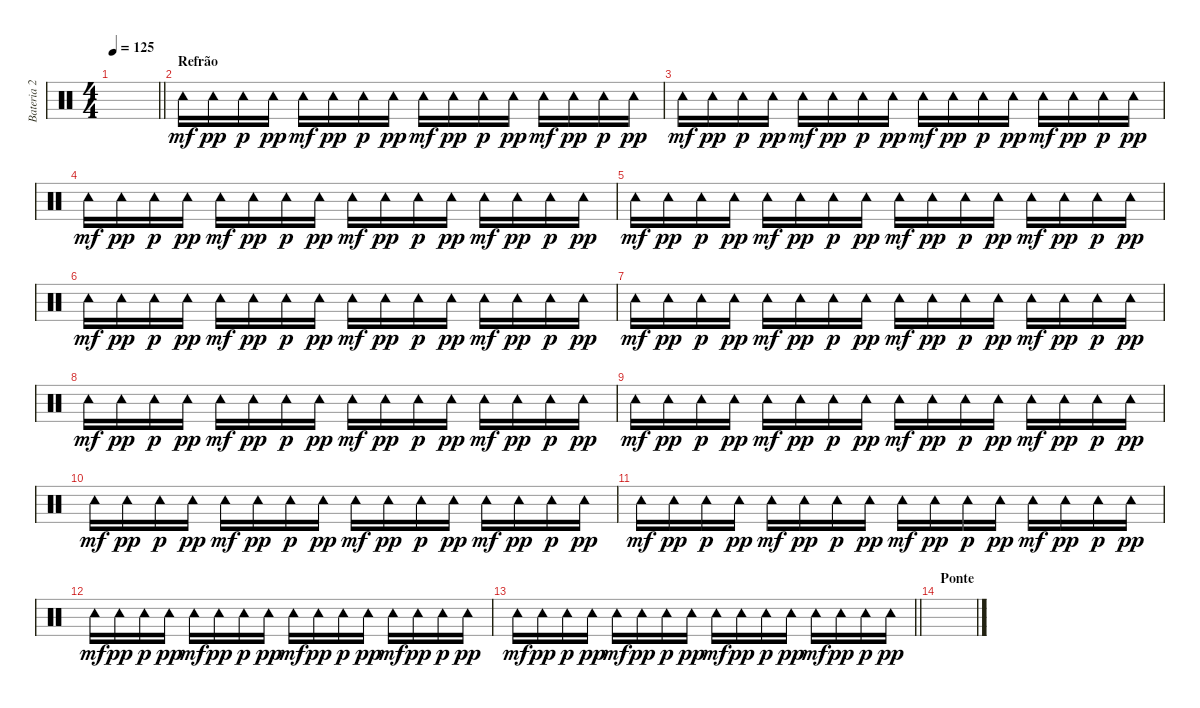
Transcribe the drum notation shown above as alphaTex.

\track ("Bateria 2" "Bateria 2") {instrument percussion}
\staff {score}
\articulation defaults
\ts (4 4)
\tempo 125
\clef neutral
\barLineRight lightlight
\ks c
|
\section ("" "Refrão")
"Tambourine (hit)".16{dy mf} "Tambourine (hit)".16{dy pp} "Tambourine (hit)".16{dy p} "Tambourine (hit)".16{dy pp} "Tambourine (hit)".16{dy mf} "Tambourine (hit)".16{dy pp} "Tambourine (hit)".16{dy p} "Tambourine (hit)".16{dy pp} "Tambourine (hit)".16{dy mf} "Tambourine (hit)".16{dy pp} "Tambourine (hit)".16{dy p} "Tambourine (hit)".16{dy pp} "Tambourine (hit)".16{dy mf} "Tambourine (hit)".16{dy pp} "Tambourine (hit)".16{dy p} "Tambourine (hit)".16{dy pp} |
"Tambourine (hit)".16{dy mf} "Tambourine (hit)".16{dy pp} "Tambourine (hit)".16{dy p} "Tambourine (hit)".16{dy pp} "Tambourine (hit)".16{dy mf} "Tambourine (hit)".16{dy pp} "Tambourine (hit)".16{dy p} "Tambourine (hit)".16{dy pp} "Tambourine (hit)".16{dy mf} "Tambourine (hit)".16{dy pp} "Tambourine (hit)".16{dy p} "Tambourine (hit)".16{dy pp} "Tambourine (hit)".16{dy mf} "Tambourine (hit)".16{dy pp} "Tambourine (hit)".16{dy p} "Tambourine (hit)".16{dy pp} |
"Tambourine (hit)".16{dy mf} "Tambourine (hit)".16{dy pp} "Tambourine (hit)".16{dy p} "Tambourine (hit)".16{dy pp} "Tambourine (hit)".16{dy mf} "Tambourine (hit)".16{dy pp} "Tambourine (hit)".16{dy p} "Tambourine (hit)".16{dy pp} "Tambourine (hit)".16{dy mf} "Tambourine (hit)".16{dy pp} "Tambourine (hit)".16{dy p} "Tambourine (hit)".16{dy pp} "Tambourine (hit)".16{dy mf} "Tambourine (hit)".16{dy pp} "Tambourine (hit)".16{dy p} "Tambourine (hit)".16{dy pp} |
"Tambourine (hit)".16{dy mf} "Tambourine (hit)".16{dy pp} "Tambourine (hit)".16{dy p} "Tambourine (hit)".16{dy pp} "Tambourine (hit)".16{dy mf} "Tambourine (hit)".16{dy pp} "Tambourine (hit)".16{dy p} "Tambourine (hit)".16{dy pp} "Tambourine (hit)".16{dy mf} "Tambourine (hit)".16{dy pp} "Tambourine (hit)".16{dy p} "Tambourine (hit)".16{dy pp} "Tambourine (hit)".16{dy mf} "Tambourine (hit)".16{dy pp} "Tambourine (hit)".16{dy p} "Tambourine (hit)".16{dy pp} |
"Tambourine (hit)".16{dy mf} "Tambourine (hit)".16{dy pp} "Tambourine (hit)".16{dy p} "Tambourine (hit)".16{dy pp} "Tambourine (hit)".16{dy mf} "Tambourine (hit)".16{dy pp} "Tambourine (hit)".16{dy p} "Tambourine (hit)".16{dy pp} "Tambourine (hit)".16{dy mf} "Tambourine (hit)".16{dy pp} "Tambourine (hit)".16{dy p} "Tambourine (hit)".16{dy pp} "Tambourine (hit)".16{dy mf} "Tambourine (hit)".16{dy pp} "Tambourine (hit)".16{dy p} "Tambourine (hit)".16{dy pp} |
"Tambourine (hit)".16{dy mf} "Tambourine (hit)".16{dy pp} "Tambourine (hit)".16{dy p} "Tambourine (hit)".16{dy pp} "Tambourine (hit)".16{dy mf} "Tambourine (hit)".16{dy pp} "Tambourine (hit)".16{dy p} "Tambourine (hit)".16{dy pp} "Tambourine (hit)".16{dy mf} "Tambourine (hit)".16{dy pp} "Tambourine (hit)".16{dy p} "Tambourine (hit)".16{dy pp} "Tambourine (hit)".16{dy mf} "Tambourine (hit)".16{dy pp} "Tambourine (hit)".16{dy p} "Tambourine (hit)".16{dy pp} |
"Tambourine (hit)".16{dy mf} "Tambourine (hit)".16{dy pp} "Tambourine (hit)".16{dy p} "Tambourine (hit)".16{dy pp} "Tambourine (hit)".16{dy mf} "Tambourine (hit)".16{dy pp} "Tambourine (hit)".16{dy p} "Tambourine (hit)".16{dy pp} "Tambourine (hit)".16{dy mf} "Tambourine (hit)".16{dy pp} "Tambourine (hit)".16{dy p} "Tambourine (hit)".16{dy pp} "Tambourine (hit)".16{dy mf} "Tambourine (hit)".16{dy pp} "Tambourine (hit)".16{dy p} "Tambourine (hit)".16{dy pp} |
"Tambourine (hit)".16{dy mf} "Tambourine (hit)".16{dy pp} "Tambourine (hit)".16{dy p} "Tambourine (hit)".16{dy pp} "Tambourine (hit)".16{dy mf} "Tambourine (hit)".16{dy pp} "Tambourine (hit)".16{dy p} "Tambourine (hit)".16{dy pp} "Tambourine (hit)".16{dy mf} "Tambourine (hit)".16{dy pp} "Tambourine (hit)".16{dy p} "Tambourine (hit)".16{dy pp} "Tambourine (hit)".16{dy mf} "Tambourine (hit)".16{dy pp} "Tambourine (hit)".16{dy p} "Tambourine (hit)".16{dy pp} |
"Tambourine (hit)".16{dy mf} "Tambourine (hit)".16{dy pp} "Tambourine (hit)".16{dy p} "Tambourine (hit)".16{dy pp} "Tambourine (hit)".16{dy mf} "Tambourine (hit)".16{dy pp} "Tambourine (hit)".16{dy p} "Tambourine (hit)".16{dy pp} "Tambourine (hit)".16{dy mf} "Tambourine (hit)".16{dy pp} "Tambourine (hit)".16{dy p} "Tambourine (hit)".16{dy pp} "Tambourine (hit)".16{dy mf} "Tambourine (hit)".16{dy pp} "Tambourine (hit)".16{dy p} "Tambourine (hit)".16{dy pp} |
"Tambourine (hit)".16{dy mf} "Tambourine (hit)".16{dy pp} "Tambourine (hit)".16{dy p} "Tambourine (hit)".16{dy pp} "Tambourine (hit)".16{dy mf} "Tambourine (hit)".16{dy pp} "Tambourine (hit)".16{dy p} "Tambourine (hit)".16{dy pp} "Tambourine (hit)".16{dy mf} "Tambourine (hit)".16{dy pp} "Tambourine (hit)".16{dy p} "Tambourine (hit)".16{dy pp} "Tambourine (hit)".16{dy mf} "Tambourine (hit)".16{dy pp} "Tambourine (hit)".16{dy p} "Tambourine (hit)".16{dy pp} |
"Tambourine (hit)".16{dy mf} "Tambourine (hit)".16{dy pp} "Tambourine (hit)".16{dy p} "Tambourine (hit)".16{dy pp} "Tambourine (hit)".16{dy mf} "Tambourine (hit)".16{dy pp} "Tambourine (hit)".16{dy p} "Tambourine (hit)".16{dy pp} "Tambourine (hit)".16{dy mf} "Tambourine (hit)".16{dy pp} "Tambourine (hit)".16{dy p} "Tambourine (hit)".16{dy pp} "Tambourine (hit)".16{dy mf} "Tambourine (hit)".16{dy pp} "Tambourine (hit)".16{dy p} "Tambourine (hit)".16{dy pp} |
\barLineRight lightlight "Tambourine (hit)".16{dy mf} "Tambourine (hit)".16{dy pp} "Tambourine (hit)".16{dy p} "Tambourine (hit)".16{dy pp} "Tambourine (hit)".16{dy mf} "Tambourine (hit)".16{dy pp} "Tambourine (hit)".16{dy p} "Tambourine (hit)".16{dy pp} "Tambourine (hit)".16{dy mf} "Tambourine (hit)".16{dy pp} "Tambourine (hit)".16{dy p} "Tambourine (hit)".16{dy pp} "Tambourine (hit)".16{dy mf} "Tambourine (hit)".16{dy pp} "Tambourine (hit)".16{dy p} "Tambourine (hit)".16{dy pp}
|
\section ("" "Ponte")
